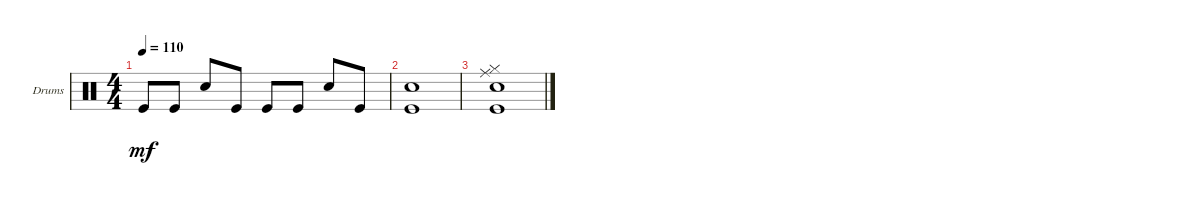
\defaultSystemsLayout 4
\bracketExtendMode groupsimilarinstruments
\firstSystemTrackNameOrientation horizontal
\otherSystemsTrackNameOrientation horizontal
\track ("Tico Torres" "Drums") {instrument percussion}
\staff {score}
\articulation defaults
\ts (4 4)
\tempo 110
\clef neutral
\ks c "Kick (hit)".8{dy mf} "Kick (hit)".8 "Snare (hit) 2".8 "Kick (hit)".8 "Kick (hit)".8 "Kick (hit)".8 "Snare (hit) 2".8 "Kick (hit)".8
|
("Kick (hit)" "Snare (hit) 2").1 |
("Kick (hit)" "Snare (hit) 2" "Hi-Hat (closed)" "Ride (middle)").1
